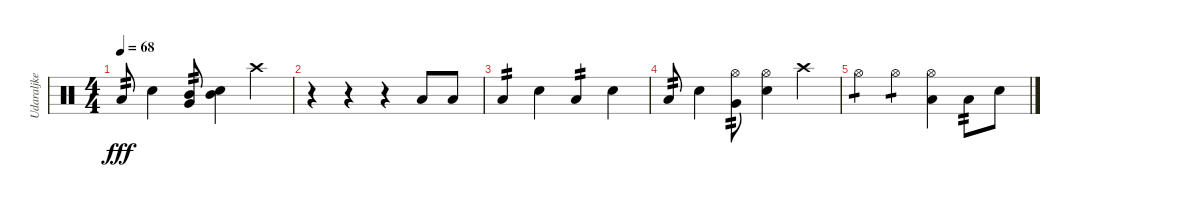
\track ("Udaraljke" "Udaraljke") {instrument percussion}
\staff {score}
\articulation defaults
\ts (4 4)
\tempo 68
\clef neutral
\ks c "Low Tom (hit)".8{tp 2 dy fff} "Electric Snare (hit)".4
("Mid Tom (hit)" "Very Low Tom (hit)").8{tp 2} ("Mid Tom (hit)" "Electric Snare (hit)").4 "Crash high (hit)".4 |
r.4 r.4 r.4 "Low Tom (hit)".8 "Low Tom (hit)".8 |
"Low Tom (hit)".4{tp 2} "Electric Snare (hit)".4 "Low Tom (hit)".4{tp 2} "Electric Snare (hit)".4 |
"Low Tom (hit)".8{tp 2} "Electric Snare (hit)".4 ("Hi-Hat (open)" "Very Low Tom (hit)").8{tp 2} ("Hi-Hat (open)" "Electric Snare (hit)").4 "Crash high (hit)".4 |
"Hi-Hat (open)".4{tp 1} "Hi-Hat (open)".4{tp 1} ("Hi-Hat (open)" "Low Tom (hit)").4 "Low Tom (hit)".8{tp 2} "Electric Snare (hit)".8
